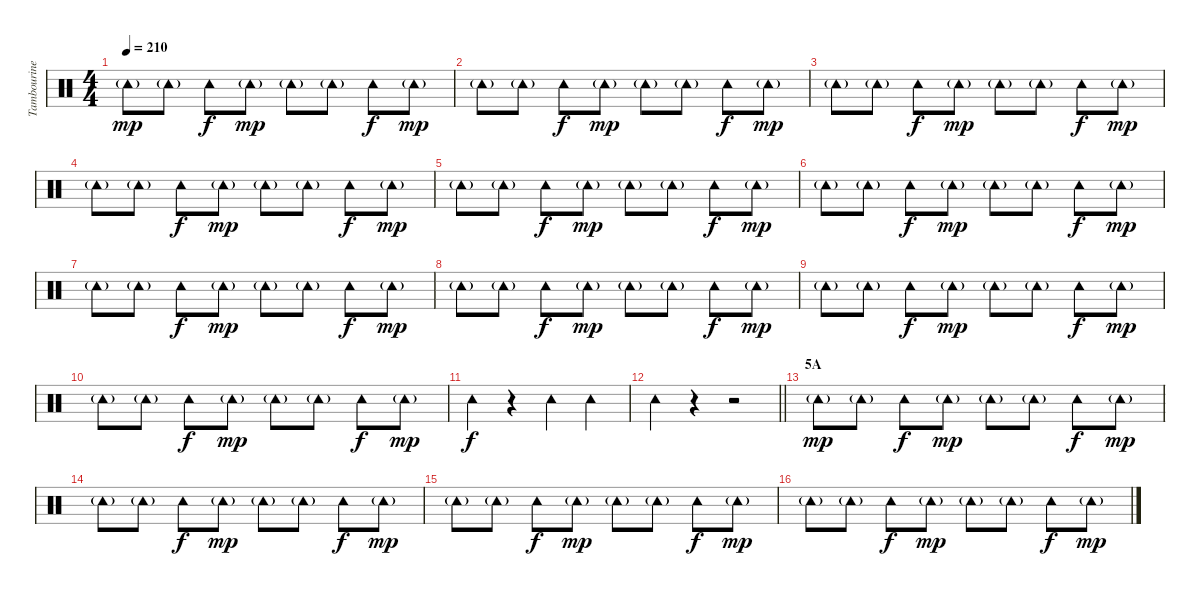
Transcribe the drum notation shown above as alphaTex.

\track ("Tambourine" "Tambourine") {instrument percussion}
\staff {score}
\articulation defaults
\ts (4 4)
\tempo 210
\clef neutral
\ks c "Tambourine (hit)"{g}.8{dy mp} "Tambourine (hit)"{g}.8 "Tambourine (hit)".8{dy f} "Tambourine (hit)"{g}.8{dy mp} "Tambourine (hit)"{g}.8 "Tambourine (hit)"{g}.8 "Tambourine (hit)".8{dy f} "Tambourine (hit)"{g}.8{dy mp}
|
"Tambourine (hit)"{g}.8 "Tambourine (hit)"{g}.8 "Tambourine (hit)".8{dy f} "Tambourine (hit)"{g}.8{dy mp} "Tambourine (hit)"{g}.8 "Tambourine (hit)"{g}.8 "Tambourine (hit)".8{dy f} "Tambourine (hit)"{g}.8{dy mp} |
"Tambourine (hit)"{g}.8 "Tambourine (hit)"{g}.8 "Tambourine (hit)".8{dy f} "Tambourine (hit)"{g}.8{dy mp} "Tambourine (hit)"{g}.8 "Tambourine (hit)"{g}.8 "Tambourine (hit)".8{dy f} "Tambourine (hit)"{g}.8{dy mp} |
"Tambourine (hit)"{g}.8 "Tambourine (hit)"{g}.8 "Tambourine (hit)".8{dy f} "Tambourine (hit)"{g}.8{dy mp} "Tambourine (hit)"{g}.8 "Tambourine (hit)"{g}.8 "Tambourine (hit)".8{dy f} "Tambourine (hit)"{g}.8{dy mp} |
"Tambourine (hit)"{g}.8 "Tambourine (hit)"{g}.8 "Tambourine (hit)".8{dy f} "Tambourine (hit)"{g}.8{dy mp} "Tambourine (hit)"{g}.8 "Tambourine (hit)"{g}.8 "Tambourine (hit)".8{dy f} "Tambourine (hit)"{g}.8{dy mp} |
"Tambourine (hit)"{g}.8 "Tambourine (hit)"{g}.8 "Tambourine (hit)".8{dy f} "Tambourine (hit)"{g}.8{dy mp} "Tambourine (hit)"{g}.8 "Tambourine (hit)"{g}.8 "Tambourine (hit)".8{dy f} "Tambourine (hit)"{g}.8{dy mp} |
"Tambourine (hit)"{g}.8 "Tambourine (hit)"{g}.8 "Tambourine (hit)".8{dy f} "Tambourine (hit)"{g}.8{dy mp} "Tambourine (hit)"{g}.8 "Tambourine (hit)"{g}.8 "Tambourine (hit)".8{dy f} "Tambourine (hit)"{g}.8{dy mp} |
"Tambourine (hit)"{g}.8 "Tambourine (hit)"{g}.8 "Tambourine (hit)".8{dy f} "Tambourine (hit)"{g}.8{dy mp} "Tambourine (hit)"{g}.8 "Tambourine (hit)"{g}.8 "Tambourine (hit)".8{dy f} "Tambourine (hit)"{g}.8{dy mp} |
"Tambourine (hit)"{g}.8 "Tambourine (hit)"{g}.8 "Tambourine (hit)".8{dy f} "Tambourine (hit)"{g}.8{dy mp} "Tambourine (hit)"{g}.8 "Tambourine (hit)"{g}.8 "Tambourine (hit)".8{dy f} "Tambourine (hit)"{g}.8{dy mp} |
"Tambourine (hit)"{g}.8 "Tambourine (hit)"{g}.8 "Tambourine (hit)".8{dy f} "Tambourine (hit)"{g}.8{dy mp} "Tambourine (hit)"{g}.8 "Tambourine (hit)"{g}.8 "Tambourine (hit)".8{dy f} "Tambourine (hit)"{g}.8{dy mp} |
"Tambourine (hit)".4{dy f} r.4 "Tambourine (hit)".4 "Tambourine (hit)".4 |
\barLineRight lightlight "Tambourine (hit)".4
r.4 r.2 |
\section ("" "5A")
"Tambourine (hit)"{g}.8{dy mp} "Tambourine (hit)"{g}.8 "Tambourine (hit)".8{dy f} "Tambourine (hit)"{g}.8{dy mp} "Tambourine (hit)"{g}.8 "Tambourine (hit)"{g}.8 "Tambourine (hit)".8{dy f} "Tambourine (hit)"{g}.8{dy mp} |
"Tambourine (hit)"{g}.8 "Tambourine (hit)"{g}.8 "Tambourine (hit)".8{dy f} "Tambourine (hit)"{g}.8{dy mp} "Tambourine (hit)"{g}.8 "Tambourine (hit)"{g}.8 "Tambourine (hit)".8{dy f} "Tambourine (hit)"{g}.8{dy mp} |
"Tambourine (hit)"{g}.8 "Tambourine (hit)"{g}.8 "Tambourine (hit)".8{dy f} "Tambourine (hit)"{g}.8{dy mp} "Tambourine (hit)"{g}.8 "Tambourine (hit)"{g}.8 "Tambourine (hit)".8{dy f} "Tambourine (hit)"{g}.8{dy mp} |
"Tambourine (hit)"{g}.8 "Tambourine (hit)"{g}.8 "Tambourine (hit)".8{dy f} "Tambourine (hit)"{g}.8{dy mp} "Tambourine (hit)"{g}.8 "Tambourine (hit)"{g}.8 "Tambourine (hit)".8{dy f} "Tambourine (hit)"{g}.8{dy mp}
